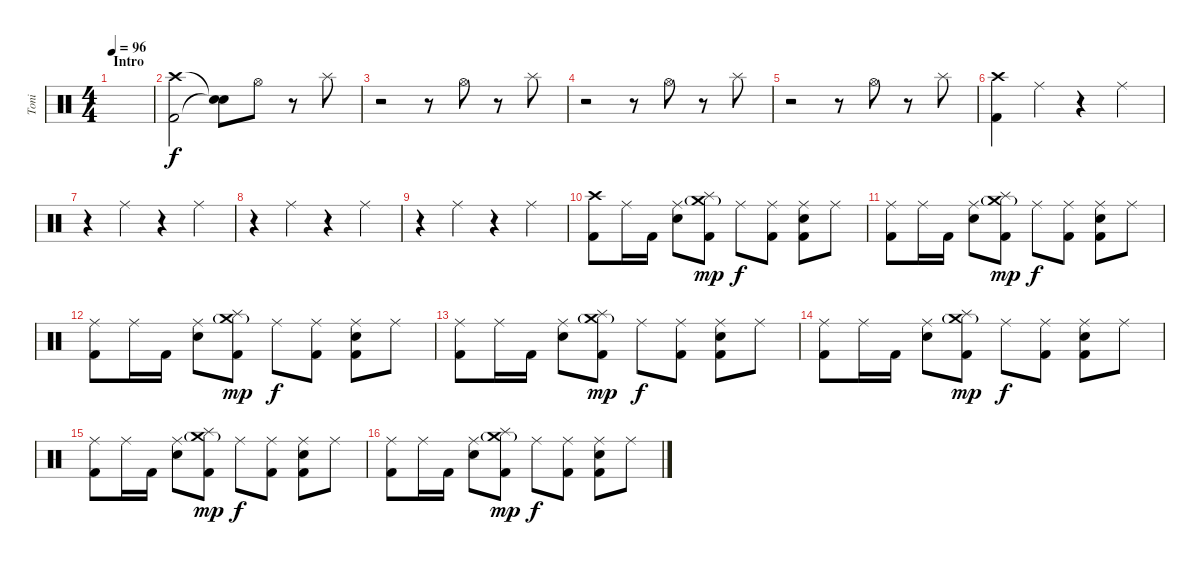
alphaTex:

\track ("Toni" "Toni") {instrument percussion}
\staff {score}
\articulation defaults
\ts (4 4)
\section ("" "Intro")
\tempo 96
\clef neutral
\ks c
|
("Crash high (hit)" "Kick (hit) 2").2 ("Snare (hit)"{t} "Snare (hit)"{t}).8 "Hi-Hat (open)".8 r.8 "Splash (hit)".8 |
r.2 r.8 "Hi-Hat (open)".8 r.8 "Splash (hit)".8 |
r.2 r.8 "Hi-Hat (open)".8 r.8 "Splash (hit)".8 |
r.2 r.8 "Hi-Hat (open)".8 r.8 "Splash (hit)".8 |
("Crash high (hit)" "Kick (hit) 2").4 "Ride (middle)".4 r.4 "Ride (middle)".4 |
r.4 "Ride (middle)".4 r.4 "Ride (middle)".4 |
r.4 "Ride (middle)".4 r.4 "Ride (middle)".4 |
r.4 "Ride (middle)".4 r.4 "Ride (middle)".4 |
("Crash high (hit)" "Kick (hit) 2").8 "Ride (middle)".16 "Kick (hit) 2".16 ("Ride (middle)" "Electric Snare (hit)").8 ("Crash medium (hit)"{g} "Splash (hit)" "Kick (hit) 2").8{dy mp} "Ride (middle)".8{dy f} ("Ride (middle)" "Kick (hit) 2").8 ("Ride (middle)" "Electric Snare (hit)" "Kick (hit) 2").8 "Ride (middle)".8 |
("Ride (middle)" "Kick (hit) 2").8 "Ride (middle)".16 "Kick (hit) 2".16 ("Ride (middle)" "Electric Snare (hit)").8 ("Crash medium (hit)"{g} "Splash (hit)" "Kick (hit) 2").8{dy mp} "Ride (middle)".8{dy f} ("Ride (middle)" "Kick (hit) 2").8 ("Ride (middle)" "Electric Snare (hit)" "Kick (hit) 2").8 "Ride (middle)".8 |
("Ride (middle)" "Kick (hit) 2").8 "Ride (middle)".16 "Kick (hit) 2".16 ("Ride (middle)" "Electric Snare (hit)").8 ("Crash medium (hit)"{g} "Splash (hit)" "Kick (hit) 2").8{dy mp} "Ride (middle)".8{dy f} ("Ride (middle)" "Kick (hit) 2").8 ("Ride (middle)" "Electric Snare (hit)" "Kick (hit) 2").8 "Ride (middle)".8 |
("Ride (middle)" "Kick (hit) 2").8 "Ride (middle)".16 "Kick (hit) 2".16 ("Ride (middle)" "Electric Snare (hit)").8 ("Crash medium (hit)"{g} "Splash (hit)" "Kick (hit) 2").8{dy mp} "Ride (middle)".8{dy f} ("Ride (middle)" "Kick (hit) 2").8 ("Ride (middle)" "Electric Snare (hit)" "Kick (hit) 2").8 "Ride (middle)".8 |
("Ride (middle)" "Kick (hit) 2").8 "Ride (middle)".16 "Kick (hit) 2".16 ("Ride (middle)" "Electric Snare (hit)").8 ("Crash medium (hit)"{g} "Splash (hit)" "Kick (hit) 2").8{dy mp} "Ride (middle)".8{dy f} ("Ride (middle)" "Kick (hit) 2").8 ("Ride (middle)" "Electric Snare (hit)" "Kick (hit) 2").8 "Ride (middle)".8 |
("Ride (middle)" "Kick (hit) 2").8 "Ride (middle)".16 "Kick (hit) 2".16 ("Ride (middle)" "Electric Snare (hit)").8 ("Crash medium (hit)"{g} "Splash (hit)" "Kick (hit) 2").8{dy mp} "Ride (middle)".8{dy f} ("Ride (middle)" "Kick (hit) 2").8 ("Ride (middle)" "Electric Snare (hit)" "Kick (hit) 2").8 "Ride (middle)".8 |
("Ride (middle)" "Kick (hit) 2").8 "Ride (middle)".16 "Kick (hit) 2".16 ("Ride (middle)" "Electric Snare (hit)").8 ("Crash medium (hit)"{g} "Splash (hit)" "Kick (hit) 2").8{dy mp} "Ride (middle)".8{dy f} ("Ride (middle)" "Kick (hit) 2").8 ("Ride (middle)" "Electric Snare (hit)" "Kick (hit) 2").8 "Ride (middle)".8
